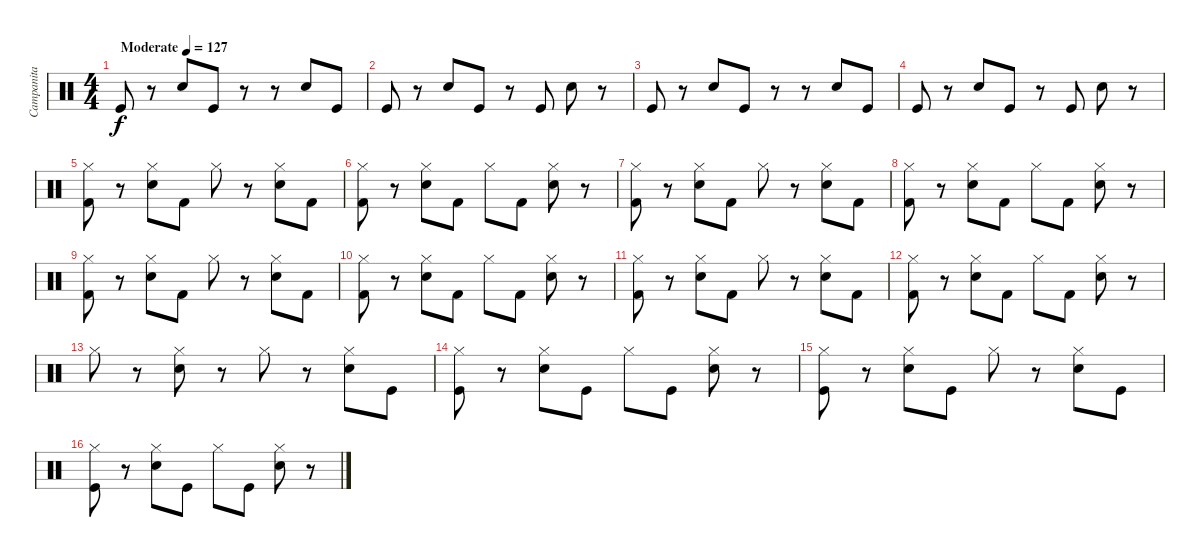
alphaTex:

\track ("Campanita" "Campanita") {instrument percussion}
\staff {score}
\articulation defaults
\ts (4 4)
\tempo (127 "Moderate")
\clef neutral
\ks c "Kick (hit)".8{dy f}
r.8 "Electric Snare (hit)".8 "Kick (hit)".8 r.8 r.8 "Electric Snare (hit)".8 "Kick (hit)".8 |
"Kick (hit)".8 r.8 "Electric Snare (hit)".8 "Kick (hit)".8 r.8 "Kick (hit)".8 "Electric Snare (hit)".8 r.8 |
"Kick (hit)".8 r.8 "Electric Snare (hit)".8 "Kick (hit)".8 r.8 r.8 "Electric Snare (hit)".8 "Kick (hit)".8 |
"Kick (hit)".8 r.8 "Electric Snare (hit)".8 "Kick (hit)".8 r.8 "Kick (hit)".8 "Electric Snare (hit)".8 r.8 |
("Kick (hit) 2" "Hi-Hat (closed)").8 r.8 ("Electric Snare (hit)" "Hi-Hat (closed)").8 "Kick (hit) 2".8 "Hi-Hat (closed)".8 r.8 ("Electric Snare (hit)" "Hi-Hat (closed)").8 "Kick (hit) 2".8 |
("Kick (hit) 2" "Hi-Hat (closed)").8 r.8 ("Electric Snare (hit)" "Hi-Hat (closed)").8 "Kick (hit) 2".8 "Hi-Hat (closed)".8 "Kick (hit) 2".8 ("Electric Snare (hit)" "Hi-Hat (closed)").8 r.8 |
("Kick (hit) 2" "Hi-Hat (closed)").8 r.8 ("Electric Snare (hit)" "Hi-Hat (closed)").8 "Kick (hit) 2".8 "Hi-Hat (closed)".8 r.8 ("Electric Snare (hit)" "Hi-Hat (closed)").8 "Kick (hit) 2".8 |
("Kick (hit) 2" "Hi-Hat (closed)").8 r.8 ("Electric Snare (hit)" "Hi-Hat (closed)").8 "Kick (hit) 2".8 "Hi-Hat (closed)".8 "Kick (hit) 2".8 ("Electric Snare (hit)" "Hi-Hat (closed)").8 r.8 |
("Kick (hit) 2" "Hi-Hat (closed)").8 r.8 ("Electric Snare (hit)" "Hi-Hat (closed)").8 "Kick (hit) 2".8 "Hi-Hat (closed)".8 r.8 ("Electric Snare (hit)" "Hi-Hat (closed)").8 "Kick (hit) 2".8 |
("Kick (hit) 2" "Hi-Hat (closed)").8 r.8 ("Electric Snare (hit)" "Hi-Hat (closed)").8 "Kick (hit) 2".8 "Hi-Hat (closed)".8 "Kick (hit) 2".8 ("Electric Snare (hit)" "Hi-Hat (closed)").8 r.8 |
("Kick (hit) 2" "Hi-Hat (closed)").8 r.8 ("Electric Snare (hit)" "Hi-Hat (closed)").8 "Kick (hit) 2".8 "Hi-Hat (closed)".8 r.8 ("Electric Snare (hit)" "Hi-Hat (closed)").8 "Kick (hit) 2".8 |
("Kick (hit) 2" "Hi-Hat (closed)").8 r.8 ("Electric Snare (hit)" "Hi-Hat (closed)").8 "Kick (hit) 2".8 "Hi-Hat (closed)".8 "Kick (hit) 2".8 ("Electric Snare (hit)" "Hi-Hat (closed)").8 r.8 |
"Hi-Hat (closed)".8 r.8 ("Electric Snare (hit)" "Hi-Hat (closed)").8 r.8 "Hi-Hat (closed)".8 r.8 ("Electric Snare (hit)" "Hi-Hat (closed)").8 "Kick (hit)".8 |
("Kick (hit)" "Hi-Hat (closed)").8 r.8 ("Electric Snare (hit)" "Hi-Hat (closed)").8 "Kick (hit)".8 "Hi-Hat (closed)".8 "Kick (hit)".8 ("Electric Snare (hit)" "Hi-Hat (closed)").8 r.8 |
("Kick (hit)" "Hi-Hat (closed)").8 r.8 ("Electric Snare (hit)" "Hi-Hat (closed)").8 "Kick (hit)".8 "Hi-Hat (closed)".8 r.8 ("Electric Snare (hit)" "Hi-Hat (closed)").8 "Kick (hit)".8 |
("Kick (hit)" "Hi-Hat (closed)").8 r.8 ("Electric Snare (hit)" "Hi-Hat (closed)").8 "Kick (hit)".8 "Hi-Hat (closed)".8 "Kick (hit)".8 ("Electric Snare (hit)" "Hi-Hat (closed)").8 r.8
